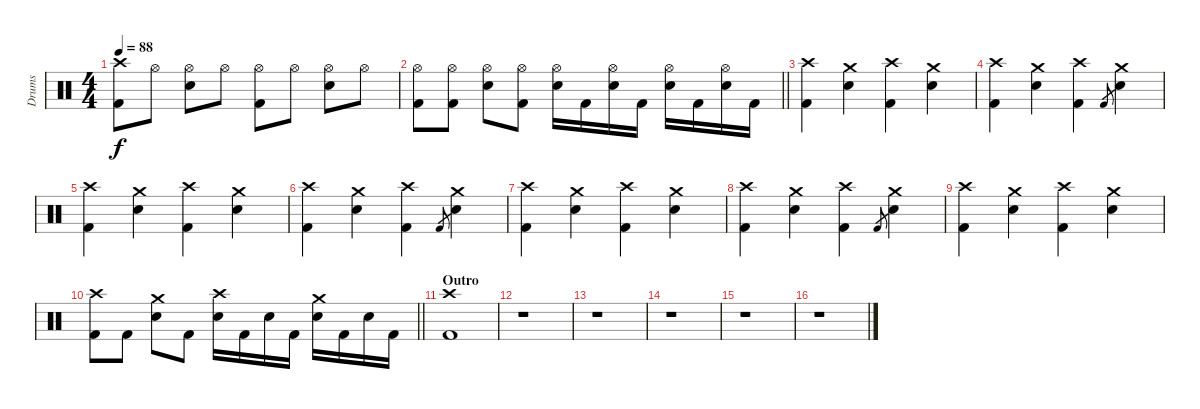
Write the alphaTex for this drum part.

\track ("Drums" "Drums") {instrument percussion}
\staff {score}
\articulation defaults
\ts (4 4)
\tempo 88
\clef neutral
\ks c
("Crash high (hit)" "Kick (hit) 2").8{dy f} "Hi-Hat (open)".8 ("Hi-Hat (open)" "Snare (hit) 2").8 "Hi-Hat (open)".8 ("Hi-Hat (open)" "Kick (hit) 2").8 "Hi-Hat (open)".8 ("Hi-Hat (open)" "Snare (hit) 2").8 "Hi-Hat (open)".8 |
\barLineRight lightlight
("Hi-Hat (open)" "Kick (hit) 2").8 ("Hi-Hat (open)" "Kick (hit) 2").8 ("Hi-Hat (open)" "Snare (hit) 2").8 ("Hi-Hat (open)" "Kick (hit) 2").8 ("Hi-Hat (open)" "Snare (hit) 2").16 "Kick (hit) 2".16 ("Hi-Hat (open)" "Snare (hit) 2").16 "Kick (hit) 2".16 ("Hi-Hat (open)" "Snare (hit) 2").16 "Kick (hit) 2".16 ("Hi-Hat (open)" "Snare (hit) 2").16 "Kick (hit) 2".16 |
("Crash high (hit)" "Kick (hit) 2").4 ("Crash medium (hit)" "Snare (hit) 2").4 ("Crash high (hit)" "Kick (hit) 2").4 ("Crash medium (hit)" "Snare (hit) 2").4 |
("Crash high (hit)" "Kick (hit) 2").4 ("Crash medium (hit)" "Snare (hit) 2").4 ("Crash high (hit)" "Kick (hit) 2").4 "Kick (hit) 2".8{gr} ("Crash medium (hit)" "Snare (hit) 2").4 |
("Crash high (hit)" "Kick (hit) 2").4 ("Crash medium (hit)" "Snare (hit) 2").4 ("Crash high (hit)" "Kick (hit) 2").4 ("Crash medium (hit)" "Snare (hit) 2").4 |
("Crash high (hit)" "Kick (hit) 2").4 ("Crash medium (hit)" "Snare (hit) 2").4 ("Crash high (hit)" "Kick (hit) 2").4 "Kick (hit) 2".8{gr} ("Crash medium (hit)" "Snare (hit) 2").4 |
("Crash high (hit)" "Kick (hit) 2").4 ("Crash medium (hit)" "Snare (hit) 2").4 ("Crash high (hit)" "Kick (hit) 2").4 ("Crash medium (hit)" "Snare (hit) 2").4 |
("Crash high (hit)" "Kick (hit) 2").4 ("Crash medium (hit)" "Snare (hit) 2").4 ("Crash high (hit)" "Kick (hit) 2").4 "Kick (hit) 2".8{gr} ("Crash medium (hit)" "Snare (hit) 2").4 |
("Crash high (hit)" "Kick (hit) 2").4 ("Crash medium (hit)" "Snare (hit) 2").4 ("Crash high (hit)" "Kick (hit) 2").4 ("Crash medium (hit)" "Snare (hit) 2").4 |
\barLineRight lightlight
("Crash high (hit)" "Kick (hit) 2").8 "Kick (hit) 2".8 ("Crash medium (hit)" "Snare (hit) 2").8 "Kick (hit) 2".8 ("Crash high (hit)" "Snare (hit) 2").16 "Kick (hit) 2".16 "Snare (hit) 2".16 "Kick (hit) 2".16 ("Crash medium (hit)" "Snare (hit) 2").16 "Kick (hit) 2".16 "Snare (hit) 2".16 "Kick (hit) 2".16 |
\section ("" "Outro")
("Crash high (hit)" "Kick (hit) 2").1 |
r.1 |
r.1 |
r.1 |
r.1 |
r.1
